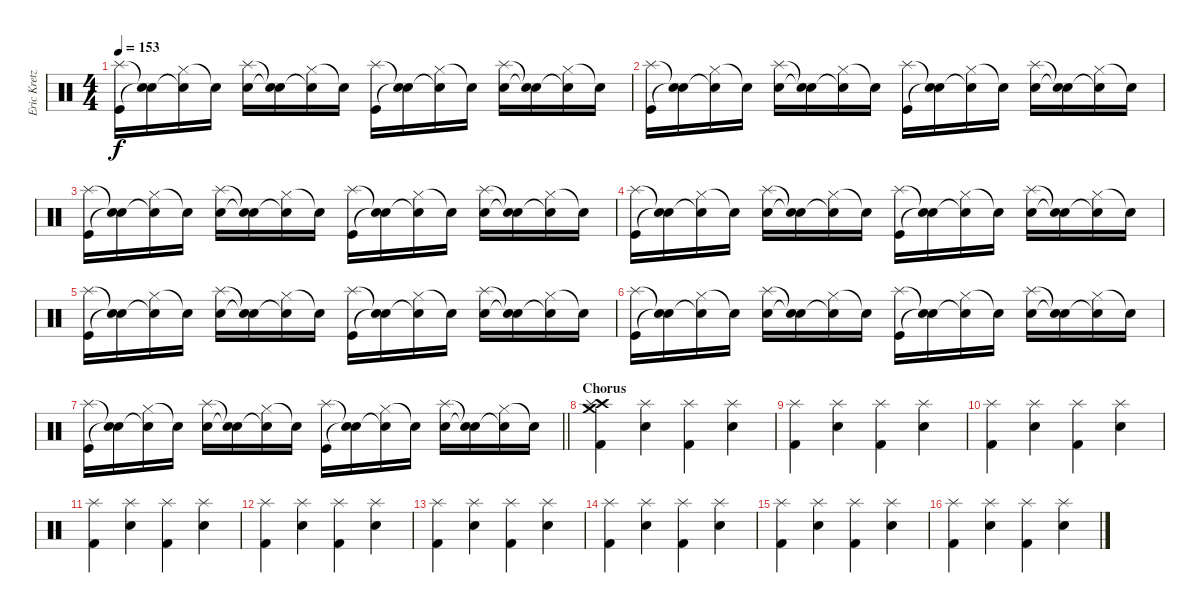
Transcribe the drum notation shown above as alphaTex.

\track ("Eric Kretz - Drums" "Eric Kretz") {instrument percussion}
\staff {score}
\articulation defaults
\ts (4 4)
\tempo 153
\clef neutral
\ks c
("Kick (hit)" "Splash (hit)").16{dy f} ("Snare (hit)"{t} "Snare (hit)"{t}).16 ("Hi-Hat (closed)" "Snare (hit)"{t}).16 "Snare (hit)"{t}.16 ("Snare (hit) 2" "Splash (hit)").16 ("Snare (hit)"{t} "Snare (hit)"{t}).16 ("Hi-Hat (closed)" "Snare (hit)"{t}).16 "Snare (hit)"{t}.16 ("Kick (hit)" "Splash (hit)").16 ("Snare (hit)"{t} "Snare (hit)"{t}).16 ("Hi-Hat (closed)" "Snare (hit)"{t}).16 "Snare (hit)"{t}.16 ("Snare (hit) 2" "Splash (hit)").16 ("Snare (hit)"{t} "Snare (hit)"{t}).16 ("Hi-Hat (closed)" "Snare (hit)"{t}).16 "Snare (hit)"{t}.16 |
("Kick (hit)" "Splash (hit)").16 ("Snare (hit)"{t} "Snare (hit)"{t}).16 ("Hi-Hat (closed)" "Snare (hit)"{t}).16 "Snare (hit)"{t}.16 ("Snare (hit) 2" "Splash (hit)").16 ("Snare (hit)"{t} "Snare (hit)"{t}).16 ("Hi-Hat (closed)" "Snare (hit)"{t}).16 "Snare (hit)"{t}.16 ("Kick (hit)" "Splash (hit)").16 ("Snare (hit)"{t} "Snare (hit)"{t}).16 ("Hi-Hat (closed)" "Snare (hit)"{t}).16 "Snare (hit)"{t}.16 ("Snare (hit) 2" "Splash (hit)").16 ("Snare (hit)"{t} "Snare (hit)"{t}).16 ("Hi-Hat (closed)" "Snare (hit)"{t}).16 "Snare (hit)"{t}.16 |
("Kick (hit)" "Splash (hit)").16 ("Snare (hit)"{t} "Snare (hit)"{t}).16 ("Hi-Hat (closed)" "Snare (hit)"{t}).16 "Snare (hit)"{t}.16 ("Snare (hit) 2" "Splash (hit)").16 ("Snare (hit)"{t} "Snare (hit)"{t}).16 ("Hi-Hat (closed)" "Snare (hit)"{t}).16 "Snare (hit)"{t}.16 ("Kick (hit)" "Splash (hit)").16 ("Snare (hit)"{t} "Snare (hit)"{t}).16 ("Hi-Hat (closed)" "Snare (hit)"{t}).16 "Snare (hit)"{t}.16 ("Snare (hit) 2" "Splash (hit)").16 ("Snare (hit)"{t} "Snare (hit)"{t}).16 ("Hi-Hat (closed)" "Snare (hit)"{t}).16 "Snare (hit)"{t}.16 |
("Kick (hit)" "Splash (hit)").16 ("Snare (hit)"{t} "Snare (hit)"{t}).16 ("Hi-Hat (closed)" "Snare (hit)"{t}).16 "Snare (hit)"{t}.16 ("Snare (hit) 2" "Splash (hit)").16 ("Snare (hit)"{t} "Snare (hit)"{t}).16 ("Hi-Hat (closed)" "Snare (hit)"{t}).16 "Snare (hit)"{t}.16 ("Kick (hit)" "Splash (hit)").16 ("Snare (hit)"{t} "Snare (hit)"{t}).16 ("Hi-Hat (closed)" "Snare (hit)"{t}).16 "Snare (hit)"{t}.16 ("Snare (hit) 2" "Splash (hit)").16 ("Snare (hit)"{t} "Snare (hit)"{t}).16 ("Hi-Hat (closed)" "Snare (hit)"{t}).16 "Snare (hit)"{t}.16 |
("Kick (hit)" "Splash (hit)").16 ("Snare (hit)"{t} "Snare (hit)"{t}).16 ("Hi-Hat (closed)" "Snare (hit)"{t}).16 "Snare (hit)"{t}.16 ("Snare (hit) 2" "Splash (hit)").16 ("Snare (hit)"{t} "Snare (hit)"{t}).16 ("Hi-Hat (closed)" "Snare (hit)"{t}).16 "Snare (hit)"{t}.16 ("Kick (hit)" "Splash (hit)").16 ("Snare (hit)"{t} "Snare (hit)"{t}).16 ("Hi-Hat (closed)" "Snare (hit)"{t}).16 "Snare (hit)"{t}.16 ("Snare (hit) 2" "Splash (hit)").16 ("Snare (hit)"{t} "Snare (hit)"{t}).16 ("Hi-Hat (closed)" "Snare (hit)"{t}).16 "Snare (hit)"{t}.16 |
("Kick (hit)" "Splash (hit)").16 ("Snare (hit)"{t} "Snare (hit)"{t}).16 ("Hi-Hat (closed)" "Snare (hit)"{t}).16 "Snare (hit)"{t}.16 ("Snare (hit) 2" "Splash (hit)").16 ("Snare (hit)"{t} "Snare (hit)"{t}).16 ("Hi-Hat (closed)" "Snare (hit)"{t}).16 "Snare (hit)"{t}.16 ("Kick (hit)" "Splash (hit)").16 ("Snare (hit)"{t} "Snare (hit)"{t}).16 ("Hi-Hat (closed)" "Snare (hit)"{t}).16 "Snare (hit)"{t}.16 ("Snare (hit) 2" "Splash (hit)").16 ("Snare (hit)"{t} "Snare (hit)"{t}).16 ("Hi-Hat (closed)" "Snare (hit)"{t}).16 "Snare (hit)"{t}.16 |
\barLineRight lightlight
("Kick (hit)" "Splash (hit)").16 ("Snare (hit)"{t} "Snare (hit)"{t}).16 ("Hi-Hat (closed)" "Snare (hit)"{t}).16 "Snare (hit)"{t}.16 ("Snare (hit) 2" "Splash (hit)").16 ("Snare (hit)"{t} "Snare (hit)"{t}).16 ("Hi-Hat (closed)" "Snare (hit)"{t}).16 "Snare (hit)"{t}.16 ("Kick (hit)" "Splash (hit)").16 ("Snare (hit)"{t} "Snare (hit)"{t}).16 ("Hi-Hat (closed)" "Snare (hit)"{t}).16 "Snare (hit)"{t}.16 ("Snare (hit) 2" "Splash (hit)").16 ("Snare (hit)"{t} "Snare (hit)"{t}).16 ("Hi-Hat (closed)" "Snare (hit)"{t}).16 "Snare (hit)"{t}.16 |
\section ("" "Chorus")
("Crash high (hit)" "Splash (hit)" "Crash medium (hit)" "Kick (hit) 2").4 ("Snare (hit) 2" "Splash (hit)").4 ("Kick (hit) 2" "Splash (hit)").4 ("Snare (hit) 2" "Splash (hit)").4 |
("Kick (hit) 2" "Splash (hit)").4 ("Snare (hit) 2" "Splash (hit)").4 ("Kick (hit) 2" "Splash (hit)").4 ("Snare (hit) 2" "Splash (hit)").4 |
("Kick (hit) 2" "Splash (hit)").4 ("Snare (hit) 2" "Splash (hit)").4 ("Kick (hit) 2" "Splash (hit)").4 ("Snare (hit) 2" "Splash (hit)").4 |
("Kick (hit) 2" "Splash (hit)").4 ("Snare (hit) 2" "Splash (hit)").4 ("Kick (hit) 2" "Splash (hit)").4 ("Snare (hit) 2" "Splash (hit)").4 |
("Kick (hit) 2" "Splash (hit)").4 ("Snare (hit) 2" "Splash (hit)").4 ("Kick (hit) 2" "Splash (hit)").4 ("Snare (hit) 2" "Splash (hit)").4 |
("Kick (hit) 2" "Splash (hit)").4 ("Snare (hit) 2" "Splash (hit)").4 ("Kick (hit) 2" "Splash (hit)").4 ("Snare (hit) 2" "Splash (hit)").4 |
("Kick (hit) 2" "Splash (hit)").4 ("Snare (hit) 2" "Splash (hit)").4 ("Kick (hit) 2" "Splash (hit)").4 ("Snare (hit) 2" "Splash (hit)").4 |
("Kick (hit) 2" "Splash (hit)").4 ("Snare (hit) 2" "Splash (hit)").4 ("Kick (hit) 2" "Splash (hit)").4 ("Snare (hit) 2" "Splash (hit)").4 |
("Kick (hit) 2" "Splash (hit)").4 ("Snare (hit) 2" "Splash (hit)").4 ("Kick (hit) 2" "Splash (hit)").4 ("Snare (hit) 2" "Splash (hit)").4
